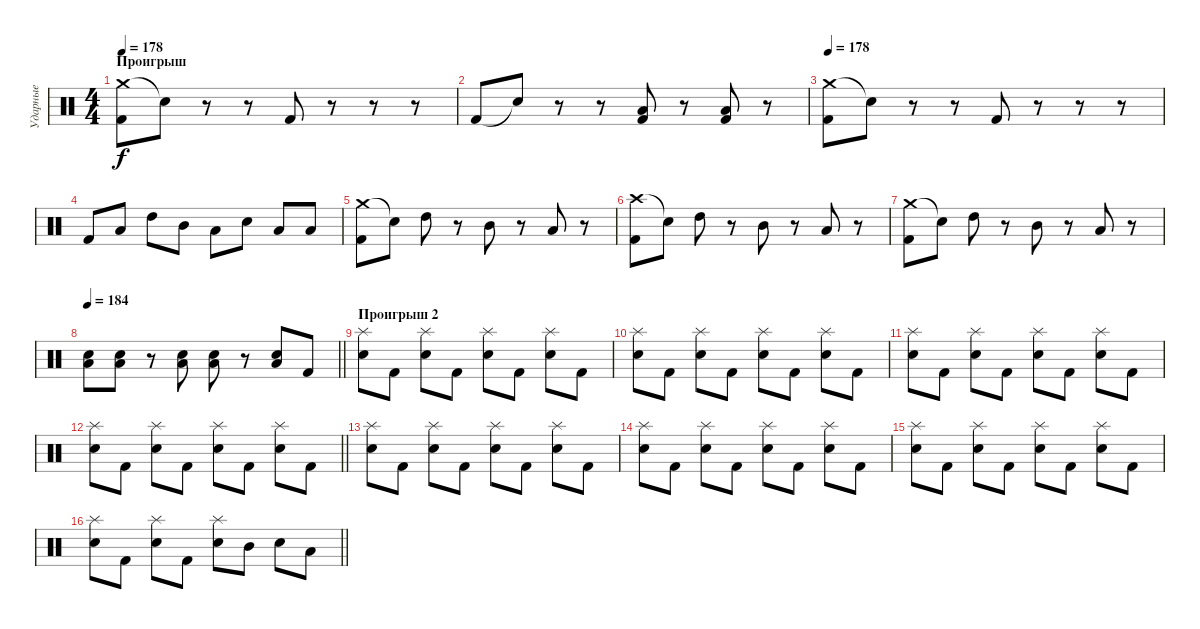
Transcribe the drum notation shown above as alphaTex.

\track ("Ударные" "Ударные") {instrument percussion}
\staff {score}
\articulation defaults
\ts (4 4)
\section ("" "Проигрыш")
\tempo 178
\clef neutral
\ks c
("Crash medium (hit)" "Kick (hit) 2").8{dy f} "Snare (hit)"{t}.8 r.8 r.8 "Kick (hit) 2".8 r.8 r.8 r.8 |
"Kick (hit) 2".8 "Snare (hit)"{t}.8 r.8 r.8 ("Low Floor Tom (hit)" "Kick (hit) 2").8 r.8 ("Low Floor Tom (hit)" "Kick (hit) 2").8 r.8 |
\tempo 178
("Crash medium (hit)" "Kick (hit) 2").8 "Snare (hit)"{t}.8 r.8 r.8 "Kick (hit) 2".8 r.8 r.8 r.8 |
"Kick (hit) 2".8 "Low Tom (hit)".8 "High Tom (hit)".8 "Mid Tom (hit)".8 "Low Tom (hit)".8 "Snare (hit) 2".8 "Low Tom (hit)".8 "Low Tom (hit)".8 |
("Crash medium (hit)" "Kick (hit) 2").8 "Snare (hit)"{t}.8 "High Tom (hit)".8 r.8 "Mid Tom (hit)".8 r.8 "Low Tom (hit)".8 r.8 |
("Crash high (hit)" "Kick (hit) 2").8 "Snare (hit)"{t}.8 "High Tom (hit)".8 r.8 "Mid Tom (hit)".8 r.8 "Low Tom (hit)".8 r.8 |
("Crash medium (hit)" "Kick (hit) 2").8 "Snare (hit)"{t}.8 "High Tom (hit)".8 r.8 "Mid Tom (hit)".8 r.8 "Low Tom (hit)".8 r.8 |
\tempo 184
\barLineRight lightlight
("Low Floor Tom (hit)" "Snare (hit) 2").8 ("Low Floor Tom (hit)" "Snare (hit) 2").8 r.8 ("Low Floor Tom (hit)" "Snare (hit) 2").8 ("Low Floor Tom (hit)" "Snare (hit) 2").8 r.8 ("Low Floor Tom (hit)" "Snare (hit) 2").8 "Kick (hit) 2".8 |
\section ("" "Проигрыш 2")
("Splash (hit)" "Snare (hit) 2").8 "Kick (hit) 2".8 ("Splash (hit)" "Snare (hit) 2").8 "Kick (hit) 2".8 ("Splash (hit)" "Snare (hit) 2").8 "Kick (hit) 2".8 ("Splash (hit)" "Snare (hit) 2").8 "Kick (hit) 2".8 |
("Splash (hit)" "Snare (hit) 2").8 "Kick (hit) 2".8 ("Splash (hit)" "Snare (hit) 2").8 "Kick (hit) 2".8 ("Splash (hit)" "Snare (hit) 2").8 "Kick (hit) 2".8 ("Splash (hit)" "Snare (hit) 2").8 "Kick (hit) 2".8 |
("Splash (hit)" "Snare (hit) 2").8 "Kick (hit) 2".8 ("Splash (hit)" "Snare (hit) 2").8 "Kick (hit) 2".8 ("Splash (hit)" "Snare (hit) 2").8 "Kick (hit) 2".8 ("Splash (hit)" "Snare (hit) 2").8 "Kick (hit) 2".8 |
\barLineRight lightlight
("Splash (hit)" "Snare (hit) 2").8 "Kick (hit) 2".8 ("Splash (hit)" "Snare (hit) 2").8 "Kick (hit) 2".8 ("Splash (hit)" "Snare (hit) 2").8 "Kick (hit) 2".8 ("Splash (hit)" "Snare (hit) 2").8 "Kick (hit) 2".8 |
("Splash (hit)" "Snare (hit) 2").8 "Kick (hit) 2".8 ("Splash (hit)" "Snare (hit) 2").8 "Kick (hit) 2".8 ("Splash (hit)" "Snare (hit) 2").8 "Kick (hit) 2".8 ("Splash (hit)" "Snare (hit) 2").8 "Kick (hit) 2".8 |
("Splash (hit)" "Snare (hit) 2").8 "Kick (hit) 2".8 ("Splash (hit)" "Snare (hit) 2").8 "Kick (hit) 2".8 ("Splash (hit)" "Snare (hit) 2").8 "Kick (hit) 2".8 ("Splash (hit)" "Snare (hit) 2").8 "Kick (hit) 2".8 |
("Splash (hit)" "Snare (hit) 2").8 "Kick (hit) 2".8 ("Splash (hit)" "Snare (hit) 2").8 "Kick (hit) 2".8 ("Splash (hit)" "Snare (hit) 2").8 "Kick (hit) 2".8 ("Splash (hit)" "Snare (hit) 2").8 "Kick (hit) 2".8 |
\barLineRight lightlight
("Splash (hit)" "Snare (hit) 2").8 "Kick (hit) 2".8 ("Splash (hit)" "Snare (hit) 2").8 "Kick (hit) 2".8 ("Splash (hit)" "Snare (hit) 2").8 "Mid Tom (hit)".8 "Snare (hit) 2".8 "Low Tom (hit)".8
